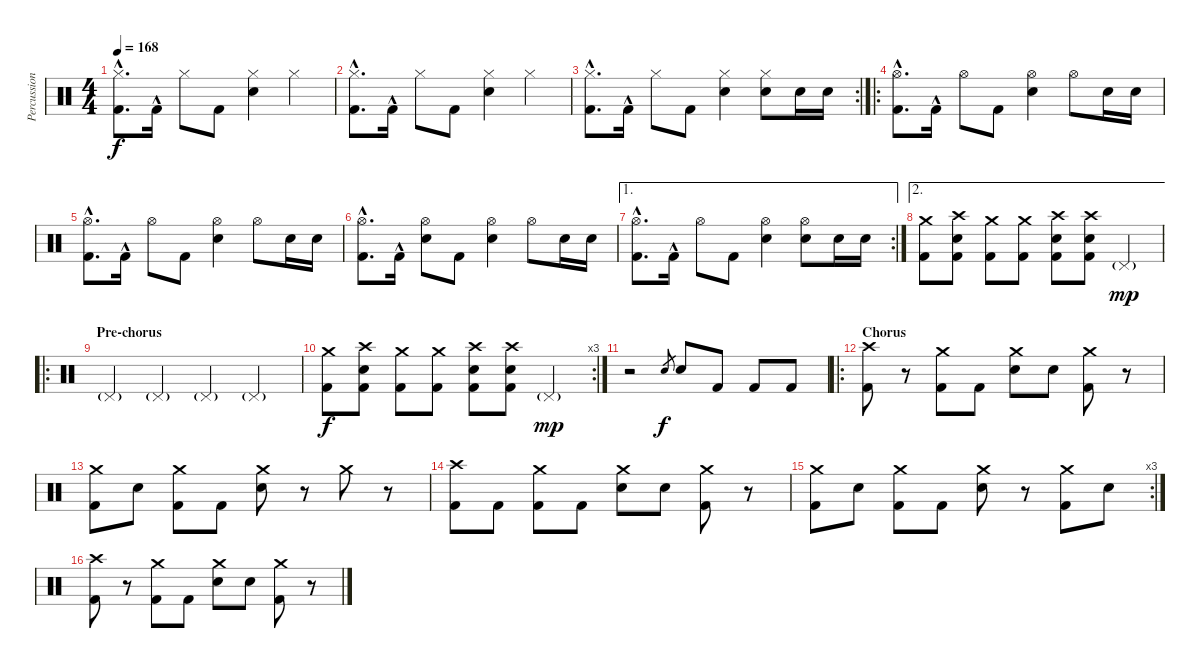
\track ("Percussion" "Percussion") {instrument percussion}
\staff {score}
\articulation defaults
\ts (4 4)
\tempo 168
\clef neutral
\ks c
("Hi-Hat (closed)" "Kick (hit) 2"{hac}).8{d dy f} "Kick (hit) 2"{hac}.16 "Hi-Hat (closed)".8 "Kick (hit) 2".8 ("Hi-Hat (closed)" "Electric Snare (hit)").4 "Hi-Hat (closed)".4 |
("Hi-Hat (closed)" "Kick (hit) 2"{hac}).8{d} "Kick (hit) 2"{hac}.16 "Hi-Hat (closed)".8 "Kick (hit) 2".8 ("Hi-Hat (closed)" "Electric Snare (hit)").4 "Hi-Hat (closed)".4 |
\rc 2
("Hi-Hat (closed)" "Kick (hit) 2"{hac}).8{d} "Kick (hit) 2"{hac}.16 "Hi-Hat (closed)".8 "Kick (hit) 2".8 ("Hi-Hat (closed)" "Electric Snare (hit)").4 ("Hi-Hat (closed)" "Electric Snare (hit)").8 "Electric Snare (hit)".16 "Electric Snare (hit)".16 |
\ro
("Hi-Hat (open)" "Kick (hit) 2"{hac}).8{d} "Kick (hit) 2"{hac}.16 "Hi-Hat (open)".8 "Kick (hit) 2".8 ("Hi-Hat (open)" "Electric Snare (hit)").4 "Hi-Hat (open)".8 "Electric Snare (hit)".16 "Electric Snare (hit)".16 |
("Hi-Hat (open)" "Kick (hit) 2"{hac}).8{d} "Kick (hit) 2"{hac}.16 "Hi-Hat (open)".8 "Kick (hit) 2".8 ("Hi-Hat (open)" "Electric Snare (hit)").4 "Hi-Hat (open)".8 "Electric Snare (hit)".16 "Electric Snare (hit)".16 |
("Hi-Hat (open)" "Kick (hit) 2"{hac}).8{d} "Kick (hit) 2"{hac}.16 ("Hi-Hat (open)" "Electric Snare (hit)").8 "Kick (hit) 2".8 ("Hi-Hat (open)" "Electric Snare (hit)").4 "Hi-Hat (open)".8 "Electric Snare (hit)".16 "Electric Snare (hit)".16 |
\ae 1
\rc 2
("Hi-Hat (open)" "Kick (hit) 2"{hac}).8{d} "Kick (hit) 2"{hac}.16 "Hi-Hat (open)".8 "Kick (hit) 2".8 ("Hi-Hat (open)" "Electric Snare (hit)").4 ("Hi-Hat (open)" "Electric Snare (hit)").8 "Electric Snare (hit)".16 "Electric Snare (hit)".16 |
\ae 2
("Crash medium (hit)" "Kick (hit) 2").8 ("Crash high (hit)" "Electric Snare (hit)" "Kick (hit) 2").8 ("Crash medium (hit)" "Kick (hit) 2").8 ("Crash medium (hit)" "Kick (hit) 2").8 ("Crash high (hit)" "Electric Snare (hit)" "Kick (hit) 2").8 ("Crash high (hit)" "Electric Snare (hit)" "Kick (hit) 2").8 "Pedal Hi-Hat (hit)"{g}.4{dy mp} |
\ro
\section ("" "Pre-chorus")
"Pedal Hi-Hat (hit)"{g}.4 "Pedal Hi-Hat (hit)"{g}.4 "Pedal Hi-Hat (hit)"{g}.4 "Pedal Hi-Hat (hit)"{g}.4 |
\rc 3
("Crash medium (hit)" "Kick (hit) 2").8{dy f} ("Crash high (hit)" "Electric Snare (hit)" "Kick (hit) 2").8 ("Crash medium (hit)" "Kick (hit) 2").8 ("Crash medium (hit)" "Kick (hit) 2").8 ("Crash high (hit)" "Electric Snare (hit)" "Kick (hit) 2").8 ("Crash high (hit)" "Electric Snare (hit)" "Kick (hit) 2").8 "Pedal Hi-Hat (hit)"{g}.4{dy mp} |
r.2 "Electric Snare (hit)".8{gr dy f} "Electric Snare (hit)".8 "Kick (hit) 2".8 "Kick (hit) 2".8 "Kick (hit) 2".8 |
\ro
\section ("" "Chorus")
("Crash high (hit)" "Kick (hit) 2").8 r.8 ("Crash medium (hit)" "Kick (hit) 2").8 "Kick (hit) 2".8 ("Crash medium (hit)" "Electric Snare (hit)").8 "Electric Snare (hit)".8 ("Crash medium (hit)" "Kick (hit) 2").8 r.8 |
("Crash medium (hit)" "Kick (hit) 2").8 "Electric Snare (hit)".8 ("Crash medium (hit)" "Kick (hit) 2").8 "Kick (hit) 2".8 ("Crash medium (hit)" "Electric Snare (hit)").8 r.8 "Crash medium (hit)".8 r.8 |
("Crash high (hit)" "Kick (hit) 2").8 "Kick (hit) 2".8 ("Crash medium (hit)" "Kick (hit) 2").8 "Kick (hit) 2".8 ("Crash medium (hit)" "Electric Snare (hit)").8 "Electric Snare (hit)".8 ("Crash medium (hit)" "Kick (hit) 2").8 r.8 |
\rc 3
("Crash medium (hit)" "Kick (hit) 2").8 "Electric Snare (hit)".8 ("Crash medium (hit)" "Kick (hit) 2").8 "Kick (hit) 2".8 ("Crash medium (hit)" "Electric Snare (hit)").8 r.8 ("Crash medium (hit)" "Kick (hit) 2").8 "Electric Snare (hit)".8 |
("Crash high (hit)" "Kick (hit) 2").8 r.8 ("Crash medium (hit)" "Kick (hit) 2").8 "Kick (hit) 2".8 ("Crash medium (hit)" "Electric Snare (hit)").8 "Electric Snare (hit)".8 ("Crash medium (hit)" "Kick (hit) 2").8 r.8
